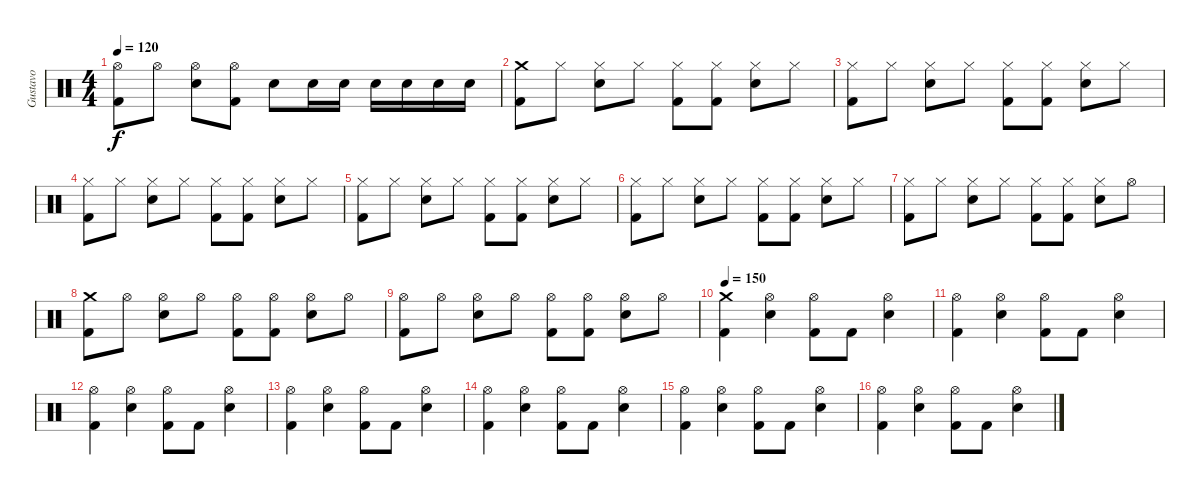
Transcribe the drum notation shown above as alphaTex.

\track ("Gustavo" "Gustavo") {instrument percussion}
\staff {score}
\articulation defaults
\ts (4 4)
\tempo 120
\clef neutral
\ks c
("Hi-Hat (open)" "Kick (hit) 2").8{dy f} "Hi-Hat (open)".8 ("Hi-Hat (open)" "Snare (hit) 2").8 ("Hi-Hat (open)" "Kick (hit) 2").8 "Snare (hit) 2".8 "Snare (hit) 2".16 "Snare (hit) 2".16 "Snare (hit) 2".16 "Snare (hit) 2".16 "Snare (hit) 2".16 "Snare (hit) 2".16 |
("Crash medium (hit)" "Kick (hit) 2").8 "Hi-Hat (closed)".8 ("Hi-Hat (closed)" "Snare (hit) 2").8 "Hi-Hat (closed)".8 ("Hi-Hat (closed)" "Kick (hit) 2").8 ("Hi-Hat (closed)" "Kick (hit) 2").8 ("Hi-Hat (closed)" "Snare (hit) 2").8 "Hi-Hat (closed)".8 |
("Hi-Hat (closed)" "Kick (hit) 2").8 "Hi-Hat (closed)".8 ("Hi-Hat (closed)" "Snare (hit) 2").8 "Hi-Hat (closed)".8 ("Hi-Hat (closed)" "Kick (hit) 2").8 ("Hi-Hat (closed)" "Kick (hit) 2").8 ("Hi-Hat (closed)" "Snare (hit) 2").8 "Hi-Hat (closed)".8 |
("Hi-Hat (closed)" "Kick (hit) 2").8 "Hi-Hat (closed)".8 ("Hi-Hat (closed)" "Snare (hit) 2").8 "Hi-Hat (closed)".8 ("Hi-Hat (closed)" "Kick (hit) 2").8 ("Hi-Hat (closed)" "Kick (hit) 2").8 ("Hi-Hat (closed)" "Snare (hit) 2").8 "Hi-Hat (closed)".8 |
("Hi-Hat (closed)" "Kick (hit) 2").8 "Hi-Hat (closed)".8 ("Hi-Hat (closed)" "Snare (hit) 2").8 "Hi-Hat (closed)".8 ("Hi-Hat (closed)" "Kick (hit) 2").8 ("Hi-Hat (closed)" "Kick (hit) 2").8 ("Hi-Hat (closed)" "Snare (hit) 2").8 "Hi-Hat (closed)".8 |
("Hi-Hat (closed)" "Kick (hit) 2").8 "Hi-Hat (closed)".8 ("Hi-Hat (closed)" "Snare (hit) 2").8 "Hi-Hat (closed)".8 ("Hi-Hat (closed)" "Kick (hit) 2").8 ("Hi-Hat (closed)" "Kick (hit) 2").8 ("Hi-Hat (closed)" "Snare (hit) 2").8 "Hi-Hat (closed)".8 |
("Hi-Hat (closed)" "Kick (hit) 2").8 "Hi-Hat (closed)".8 ("Hi-Hat (closed)" "Snare (hit) 2").8 "Hi-Hat (closed)".8 ("Hi-Hat (closed)" "Kick (hit) 2").8 ("Hi-Hat (closed)" "Kick (hit) 2").8 ("Hi-Hat (closed)" "Snare (hit) 2").8 "Hi-Hat (open)".8 |
("Crash medium (hit)" "Kick (hit) 2").8 "Hi-Hat (open)".8 ("Hi-Hat (open)" "Snare (hit) 2").8 "Hi-Hat (open)".8 ("Hi-Hat (open)" "Kick (hit) 2").8 ("Hi-Hat (open)" "Kick (hit) 2").8 ("Hi-Hat (open)" "Snare (hit) 2").8 "Hi-Hat (open)".8 |
("Hi-Hat (open)" "Kick (hit) 2").8 "Hi-Hat (open)".8 ("Hi-Hat (open)" "Snare (hit) 2").8 "Hi-Hat (open)".8 ("Hi-Hat (open)" "Kick (hit) 2").8 ("Hi-Hat (open)" "Kick (hit) 2").8 ("Hi-Hat (open)" "Snare (hit) 2").8 "Hi-Hat (open)".8 |
\tempo 150
("Crash medium (hit)" "Kick (hit) 2").4 ("Hi-Hat (open)" "Snare (hit) 2").4 ("Hi-Hat (open)" "Kick (hit) 2").8 "Kick (hit) 2".8 ("Hi-Hat (open)" "Snare (hit) 2").4 |
("Hi-Hat (open)" "Kick (hit) 2").4 ("Hi-Hat (open)" "Snare (hit) 2").4 ("Hi-Hat (open)" "Kick (hit) 2").8 "Kick (hit) 2".8 ("Hi-Hat (open)" "Snare (hit) 2").4 |
("Hi-Hat (open)" "Kick (hit) 2").4 ("Hi-Hat (open)" "Snare (hit) 2").4 ("Hi-Hat (open)" "Kick (hit) 2").8 "Kick (hit) 2".8 ("Hi-Hat (open)" "Snare (hit) 2").4 |
("Hi-Hat (open)" "Kick (hit) 2").4 ("Hi-Hat (open)" "Snare (hit) 2").4 ("Hi-Hat (open)" "Kick (hit) 2").8 "Kick (hit) 2".8 ("Hi-Hat (open)" "Snare (hit) 2").4 |
("Hi-Hat (open)" "Kick (hit) 2").4 ("Hi-Hat (open)" "Snare (hit) 2").4 ("Hi-Hat (open)" "Kick (hit) 2").8 "Kick (hit) 2".8 ("Hi-Hat (open)" "Snare (hit) 2").4 |
("Hi-Hat (open)" "Kick (hit) 2").4 ("Hi-Hat (open)" "Snare (hit) 2").4 ("Hi-Hat (open)" "Kick (hit) 2").8 "Kick (hit) 2".8 ("Hi-Hat (open)" "Snare (hit) 2").4 |
("Hi-Hat (open)" "Kick (hit) 2").4 ("Hi-Hat (open)" "Snare (hit) 2").4 ("Hi-Hat (open)" "Kick (hit) 2").8 "Kick (hit) 2".8 ("Hi-Hat (open)" "Snare (hit) 2").4
